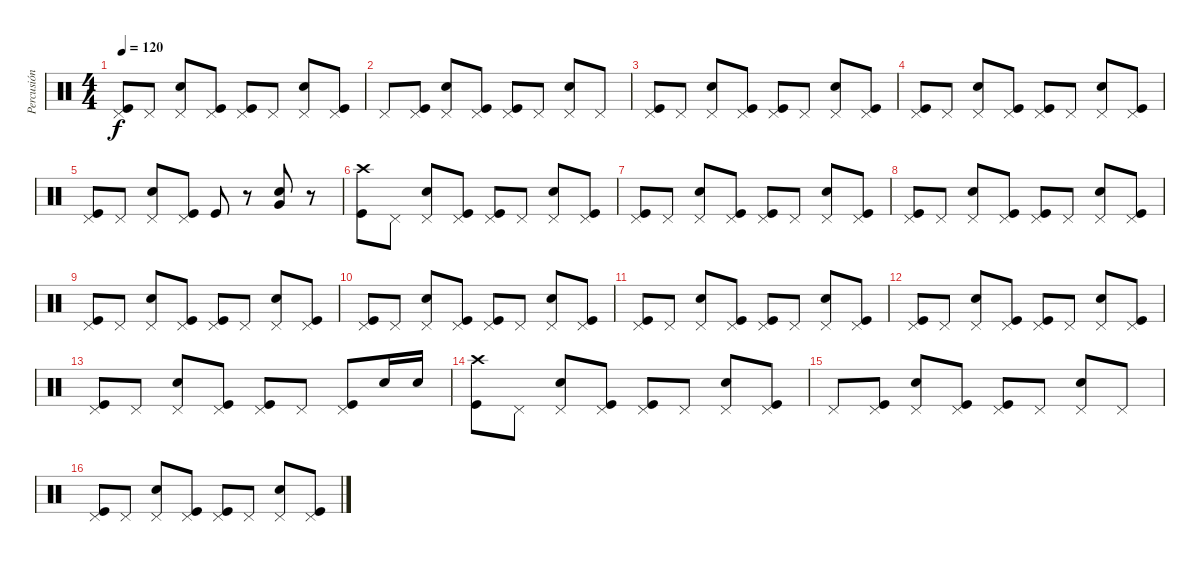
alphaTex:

\track ("Percusión" "Percusión") {instrument percussion}
\staff {score}
\articulation defaults
\ts (4 4)
\tempo 120
\clef neutral
\ks c
("Pedal Hi-Hat (hit)" "Kick (hit)").8{dy f} "Pedal Hi-Hat (hit)".8 ("Pedal Hi-Hat (hit)" "Electric Snare (hit)").8 ("Pedal Hi-Hat (hit)" "Kick (hit)").8 ("Pedal Hi-Hat (hit)" "Kick (hit)").8 "Pedal Hi-Hat (hit)".8 ("Pedal Hi-Hat (hit)" "Electric Snare (hit)").8 ("Pedal Hi-Hat (hit)" "Kick (hit)").8 |
"Pedal Hi-Hat (hit)".8 ("Pedal Hi-Hat (hit)" "Kick (hit)").8 ("Pedal Hi-Hat (hit)" "Electric Snare (hit)").8 ("Pedal Hi-Hat (hit)" "Kick (hit)").8 ("Pedal Hi-Hat (hit)" "Kick (hit)").8 "Pedal Hi-Hat (hit)".8 ("Pedal Hi-Hat (hit)" "Electric Snare (hit)").8 "Pedal Hi-Hat (hit)".8 |
("Pedal Hi-Hat (hit)" "Kick (hit)").8 "Pedal Hi-Hat (hit)".8 ("Pedal Hi-Hat (hit)" "Electric Snare (hit)").8 ("Pedal Hi-Hat (hit)" "Kick (hit)").8 ("Pedal Hi-Hat (hit)" "Kick (hit)").8 "Pedal Hi-Hat (hit)".8 ("Pedal Hi-Hat (hit)" "Electric Snare (hit)").8 ("Pedal Hi-Hat (hit)" "Kick (hit)").8 |
("Pedal Hi-Hat (hit)" "Kick (hit)").8 "Pedal Hi-Hat (hit)".8 ("Pedal Hi-Hat (hit)" "Electric Snare (hit)").8 ("Pedal Hi-Hat (hit)" "Kick (hit)").8 ("Pedal Hi-Hat (hit)" "Kick (hit)").8 "Pedal Hi-Hat (hit)".8 ("Pedal Hi-Hat (hit)" "Electric Snare (hit)").8 ("Pedal Hi-Hat (hit)" "Kick (hit)").8 |
("Pedal Hi-Hat (hit)" "Kick (hit)").8 "Pedal Hi-Hat (hit)".8 ("Pedal Hi-Hat (hit)" "Electric Snare (hit)").8 ("Pedal Hi-Hat (hit)" "Kick (hit)").8 "Kick (hit)".8 r.8 ("Very Low Tom (hit)" "Electric Snare (hit)").8 r.8 |
("Crash high (hit)" "Kick (hit)").8 "Pedal Hi-Hat (hit)".8 ("Pedal Hi-Hat (hit)" "Electric Snare (hit)").8 ("Pedal Hi-Hat (hit)" "Kick (hit)").8 ("Pedal Hi-Hat (hit)" "Kick (hit)").8 "Pedal Hi-Hat (hit)".8 ("Pedal Hi-Hat (hit)" "Electric Snare (hit)").8 ("Pedal Hi-Hat (hit)" "Kick (hit)").8 |
("Pedal Hi-Hat (hit)" "Kick (hit)").8 "Pedal Hi-Hat (hit)".8 ("Pedal Hi-Hat (hit)" "Electric Snare (hit)").8 ("Pedal Hi-Hat (hit)" "Kick (hit)").8 ("Pedal Hi-Hat (hit)" "Kick (hit)").8 "Pedal Hi-Hat (hit)".8 ("Pedal Hi-Hat (hit)" "Electric Snare (hit)").8 ("Pedal Hi-Hat (hit)" "Kick (hit)").8 |
("Pedal Hi-Hat (hit)" "Kick (hit)").8 "Pedal Hi-Hat (hit)".8 ("Pedal Hi-Hat (hit)" "Electric Snare (hit)").8 ("Pedal Hi-Hat (hit)" "Kick (hit)").8 ("Pedal Hi-Hat (hit)" "Kick (hit)").8 "Pedal Hi-Hat (hit)".8 ("Pedal Hi-Hat (hit)" "Electric Snare (hit)").8 ("Pedal Hi-Hat (hit)" "Kick (hit)").8 |
("Pedal Hi-Hat (hit)" "Kick (hit)").8 "Pedal Hi-Hat (hit)".8 ("Pedal Hi-Hat (hit)" "Electric Snare (hit)").8 ("Pedal Hi-Hat (hit)" "Kick (hit)").8 ("Pedal Hi-Hat (hit)" "Kick (hit)").8 "Pedal Hi-Hat (hit)".8 ("Pedal Hi-Hat (hit)" "Electric Snare (hit)").8 ("Pedal Hi-Hat (hit)" "Kick (hit)").8 |
("Pedal Hi-Hat (hit)" "Kick (hit)").8 "Pedal Hi-Hat (hit)".8 ("Pedal Hi-Hat (hit)" "Electric Snare (hit)").8 ("Pedal Hi-Hat (hit)" "Kick (hit)").8 ("Pedal Hi-Hat (hit)" "Kick (hit)").8 "Pedal Hi-Hat (hit)".8 ("Pedal Hi-Hat (hit)" "Electric Snare (hit)").8 ("Pedal Hi-Hat (hit)" "Kick (hit)").8 |
("Pedal Hi-Hat (hit)" "Kick (hit)").8 "Pedal Hi-Hat (hit)".8 ("Pedal Hi-Hat (hit)" "Electric Snare (hit)").8 ("Pedal Hi-Hat (hit)" "Kick (hit)").8 ("Pedal Hi-Hat (hit)" "Kick (hit)").8 "Pedal Hi-Hat (hit)".8 ("Pedal Hi-Hat (hit)" "Electric Snare (hit)").8 ("Pedal Hi-Hat (hit)" "Kick (hit)").8 |
("Pedal Hi-Hat (hit)" "Kick (hit)").8 "Pedal Hi-Hat (hit)".8 ("Pedal Hi-Hat (hit)" "Electric Snare (hit)").8 ("Pedal Hi-Hat (hit)" "Kick (hit)").8 ("Pedal Hi-Hat (hit)" "Kick (hit)").8 "Pedal Hi-Hat (hit)".8 ("Pedal Hi-Hat (hit)" "Electric Snare (hit)").8 ("Pedal Hi-Hat (hit)" "Kick (hit)").8 |
("Pedal Hi-Hat (hit)" "Kick (hit)").8 "Pedal Hi-Hat (hit)".8 ("Pedal Hi-Hat (hit)" "Electric Snare (hit)").8 ("Pedal Hi-Hat (hit)" "Kick (hit)").8 ("Pedal Hi-Hat (hit)" "Kick (hit)").8 "Pedal Hi-Hat (hit)".8 ("Pedal Hi-Hat (hit)" "Kick (hit)").8 "Electric Snare (hit)".16 "Electric Snare (hit)".16 |
("Crash high (hit)" "Kick (hit)").8 "Pedal Hi-Hat (hit)".8 ("Pedal Hi-Hat (hit)" "Electric Snare (hit)").8 ("Pedal Hi-Hat (hit)" "Kick (hit)").8 ("Pedal Hi-Hat (hit)" "Kick (hit)").8 "Pedal Hi-Hat (hit)".8 ("Pedal Hi-Hat (hit)" "Electric Snare (hit)").8 ("Pedal Hi-Hat (hit)" "Kick (hit)").8 |
"Pedal Hi-Hat (hit)".8 ("Pedal Hi-Hat (hit)" "Kick (hit)").8 ("Pedal Hi-Hat (hit)" "Electric Snare (hit)").8 ("Pedal Hi-Hat (hit)" "Kick (hit)").8 ("Pedal Hi-Hat (hit)" "Kick (hit)").8 "Pedal Hi-Hat (hit)".8 ("Pedal Hi-Hat (hit)" "Electric Snare (hit)").8 "Pedal Hi-Hat (hit)".8 |
("Pedal Hi-Hat (hit)" "Kick (hit)").8 "Pedal Hi-Hat (hit)".8 ("Pedal Hi-Hat (hit)" "Electric Snare (hit)").8 ("Pedal Hi-Hat (hit)" "Kick (hit)").8 ("Pedal Hi-Hat (hit)" "Kick (hit)").8 "Pedal Hi-Hat (hit)".8 ("Pedal Hi-Hat (hit)" "Electric Snare (hit)").8 ("Pedal Hi-Hat (hit)" "Kick (hit)").8
